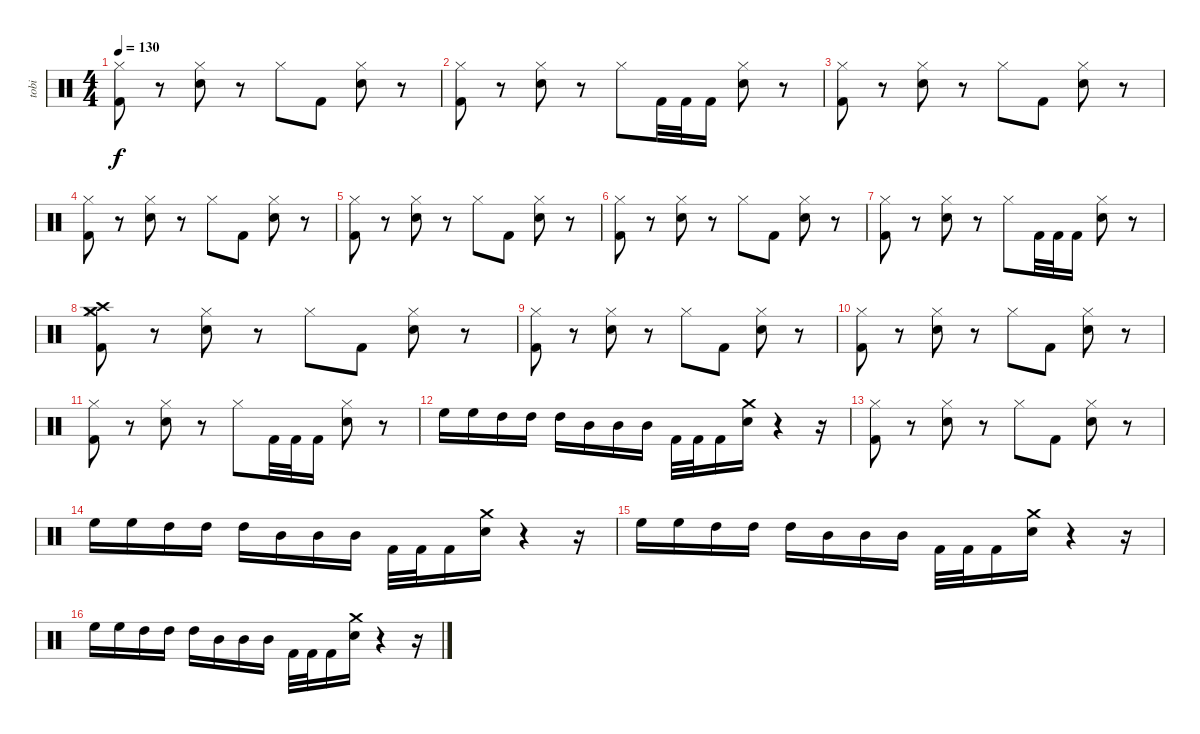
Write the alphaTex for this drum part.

\track ("tobi" "tobi") {instrument percussion}
\staff {score}
\articulation defaults
\ts (4 4)
\tempo 130
\clef neutral
\ks c
("Hi-Hat (closed)" "Kick (hit) 2").8{dy f} r.8 ("Hi-Hat (closed)" "Snare (hit) 2").8 r.8 "Hi-Hat (closed)".8 "Kick (hit) 2".8 ("Hi-Hat (closed)" "Snare (hit) 2").8 r.8 |
("Hi-Hat (closed)" "Kick (hit) 2").8 r.8 ("Hi-Hat (closed)" "Snare (hit) 2").8 r.8 "Hi-Hat (closed)".8 "Kick (hit) 2".32 "Kick (hit) 2".32 "Kick (hit) 2".16 ("Hi-Hat (closed)" "Snare (hit) 2").8 r.8 |
("Hi-Hat (closed)" "Kick (hit) 2").8 r.8 ("Hi-Hat (closed)" "Snare (hit) 2").8 r.8 "Hi-Hat (closed)".8 "Kick (hit) 2".8 ("Hi-Hat (closed)" "Snare (hit) 2").8 r.8 |
("Hi-Hat (closed)" "Kick (hit) 2").8 r.8 ("Hi-Hat (closed)" "Snare (hit) 2").8 r.8 "Hi-Hat (closed)".8 "Kick (hit) 2".8 ("Hi-Hat (closed)" "Snare (hit) 2").8 r.8 |
("Hi-Hat (closed)" "Kick (hit) 2").8 r.8 ("Hi-Hat (closed)" "Snare (hit) 2").8 r.8 "Hi-Hat (closed)".8 "Kick (hit) 2".8 ("Hi-Hat (closed)" "Snare (hit) 2").8 r.8 |
("Hi-Hat (closed)" "Kick (hit) 2").8 r.8 ("Hi-Hat (closed)" "Snare (hit) 2").8 r.8 "Hi-Hat (closed)".8 "Kick (hit) 2".8 ("Hi-Hat (closed)" "Snare (hit) 2").8 r.8 |
("Hi-Hat (closed)" "Kick (hit) 2").8 r.8 ("Hi-Hat (closed)" "Snare (hit) 2").8 r.8 "Hi-Hat (closed)".8 "Kick (hit) 2".32 "Kick (hit) 2".32 "Kick (hit) 2".16 ("Hi-Hat (closed)" "Snare (hit) 2").8 r.8 |
("Crash medium (hit)" "Hi-Hat (closed)" "Crash high (hit)" "Kick (hit) 2").8 r.8 ("Hi-Hat (closed)" "Snare (hit) 2").8 r.8 "Hi-Hat (closed)".8 "Kick (hit) 2".8 ("Hi-Hat (closed)" "Snare (hit) 2").8 r.8 |
("Hi-Hat (closed)" "Kick (hit) 2").8 r.8 ("Hi-Hat (closed)" "Snare (hit) 2").8 r.8 "Hi-Hat (closed)".8 "Kick (hit) 2".8 ("Hi-Hat (closed)" "Snare (hit) 2").8 r.8 |
("Hi-Hat (closed)" "Kick (hit) 2").8 r.8 ("Hi-Hat (closed)" "Snare (hit) 2").8 r.8 "Hi-Hat (closed)".8 "Kick (hit) 2".8 ("Hi-Hat (closed)" "Snare (hit) 2").8 r.8 |
("Hi-Hat (closed)" "Kick (hit) 2").8 r.8 ("Hi-Hat (closed)" "Snare (hit) 2").8 r.8 "Hi-Hat (closed)".8 "Kick (hit) 2".32 "Kick (hit) 2".32 "Kick (hit) 2".16 ("Hi-Hat (closed)" "Snare (hit) 2").8 r.8 |
"High Floor Tom (hit)".16 "High Floor Tom (hit)".16 "High Tom (hit)".16 "High Tom (hit)".16 "High Tom (hit)".16 "Mid Tom (hit)".16 "Mid Tom (hit)".16 "Mid Tom (hit)".16 "Kick (hit) 2".32 "Kick (hit) 2".32 "Kick (hit) 2".16 ("Crash medium (hit)" "Snare (hit) 2").16 r.4 r.16 |
("Hi-Hat (closed)" "Kick (hit) 2").8 r.8 ("Hi-Hat (closed)" "Snare (hit) 2").8 r.8 "Hi-Hat (closed)".8 "Kick (hit) 2".8 ("Hi-Hat (closed)" "Snare (hit) 2").8 r.8 |
"High Floor Tom (hit)".16 "High Floor Tom (hit)".16 "High Tom (hit)".16 "High Tom (hit)".16 "High Tom (hit)".16 "Mid Tom (hit)".16 "Mid Tom (hit)".16 "Mid Tom (hit)".16 "Kick (hit) 2".32 "Kick (hit) 2".32 "Kick (hit) 2".16 ("Crash medium (hit)" "Snare (hit) 2").16 r.4 r.16 |
"High Floor Tom (hit)".16 "High Floor Tom (hit)".16 "High Tom (hit)".16 "High Tom (hit)".16 "High Tom (hit)".16 "Mid Tom (hit)".16 "Mid Tom (hit)".16 "Mid Tom (hit)".16 "Kick (hit) 2".32 "Kick (hit) 2".32 "Kick (hit) 2".16 ("Crash medium (hit)" "Snare (hit) 2").16 r.4 r.16 |
"High Floor Tom (hit)".16 "High Floor Tom (hit)".16 "High Tom (hit)".16 "High Tom (hit)".16 "High Tom (hit)".16 "Mid Tom (hit)".16 "Mid Tom (hit)".16 "Mid Tom (hit)".16 "Kick (hit) 2".32 "Kick (hit) 2".32 "Kick (hit) 2".16 ("Crash medium (hit)" "Snare (hit) 2").16 r.4 r.16
